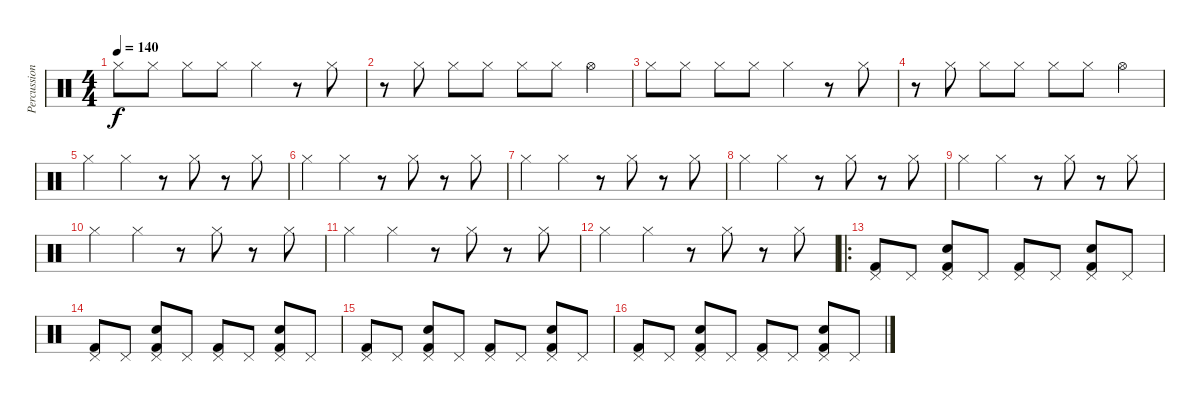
\track ("Percussion" "Percussion") {instrument percussion}
\staff {score}
\articulation defaults
\ts (4 4)
\tempo 140
\clef neutral
\ks c "Hi-Hat (closed)".8{dy f} "Hi-Hat (closed)".8 "Hi-Hat (closed)".8 "Hi-Hat (closed)".8 "Hi-Hat (closed)".4
r.8 "Hi-Hat (closed)".8 |
r.8 "Hi-Hat (closed)".8 "Hi-Hat (closed)".8 "Hi-Hat (closed)".8 "Hi-Hat (closed)".8 "Hi-Hat (closed)".8 "Hi-Hat (open)".4 |
"Hi-Hat (closed)".8 "Hi-Hat (closed)".8 "Hi-Hat (closed)".8 "Hi-Hat (closed)".8 "Hi-Hat (closed)".4 r.8 "Hi-Hat (closed)".8 |
r.8 "Hi-Hat (closed)".8 "Hi-Hat (closed)".8 "Hi-Hat (closed)".8 "Hi-Hat (closed)".8 "Hi-Hat (closed)".8 "Hi-Hat (open)".4 |
"Hi-Hat (closed)".4 "Hi-Hat (closed)".4 r.8 "Hi-Hat (closed)".8 r.8 "Hi-Hat (closed)".8 |
"Hi-Hat (closed)".4 "Hi-Hat (closed)".4 r.8 "Hi-Hat (closed)".8 r.8 "Hi-Hat (closed)".8 |
"Hi-Hat (closed)".4 "Hi-Hat (closed)".4 r.8 "Hi-Hat (closed)".8 r.8 "Hi-Hat (closed)".8 |
"Hi-Hat (closed)".4 "Hi-Hat (closed)".4 r.8 "Hi-Hat (closed)".8 r.8 "Hi-Hat (closed)".8 |
"Hi-Hat (closed)".4 "Hi-Hat (closed)".4 r.8 "Hi-Hat (closed)".8 r.8 "Hi-Hat (closed)".8 |
"Hi-Hat (closed)".4 "Hi-Hat (closed)".4 r.8 "Hi-Hat (closed)".8 r.8 "Hi-Hat (closed)".8 |
"Hi-Hat (closed)".4 "Hi-Hat (closed)".4 r.8 "Hi-Hat (closed)".8 r.8 "Hi-Hat (closed)".8 |
"Hi-Hat (closed)".4 "Hi-Hat (closed)".4 r.8 "Hi-Hat (closed)".8 r.8 "Hi-Hat (closed)".8 |
\ro
("Kick (hit) 2" "Pedal Hi-Hat (hit)").8 "Pedal Hi-Hat (hit)".8 ("Electric Snare (hit)" "Kick (hit) 2" "Pedal Hi-Hat (hit)").8 "Pedal Hi-Hat (hit)".8 ("Kick (hit) 2" "Pedal Hi-Hat (hit)").8 "Pedal Hi-Hat (hit)".8 ("Electric Snare (hit)" "Kick (hit) 2" "Pedal Hi-Hat (hit)").8 "Pedal Hi-Hat (hit)".8 |
("Kick (hit) 2" "Pedal Hi-Hat (hit)").8 "Pedal Hi-Hat (hit)".8 ("Electric Snare (hit)" "Kick (hit) 2" "Pedal Hi-Hat (hit)").8 "Pedal Hi-Hat (hit)".8 ("Kick (hit) 2" "Pedal Hi-Hat (hit)").8 "Pedal Hi-Hat (hit)".8 ("Electric Snare (hit)" "Kick (hit) 2" "Pedal Hi-Hat (hit)").8 "Pedal Hi-Hat (hit)".8 |
("Kick (hit) 2" "Pedal Hi-Hat (hit)").8 "Pedal Hi-Hat (hit)".8 ("Electric Snare (hit)" "Kick (hit) 2" "Pedal Hi-Hat (hit)").8 "Pedal Hi-Hat (hit)".8 ("Kick (hit) 2" "Pedal Hi-Hat (hit)").8 "Pedal Hi-Hat (hit)".8 ("Electric Snare (hit)" "Kick (hit) 2" "Pedal Hi-Hat (hit)").8 "Pedal Hi-Hat (hit)".8 |
("Kick (hit) 2" "Pedal Hi-Hat (hit)").8 "Pedal Hi-Hat (hit)".8 ("Electric Snare (hit)" "Kick (hit) 2" "Pedal Hi-Hat (hit)").8 "Pedal Hi-Hat (hit)".8 ("Kick (hit) 2" "Pedal Hi-Hat (hit)").8 "Pedal Hi-Hat (hit)".8 ("Electric Snare (hit)" "Kick (hit) 2" "Pedal Hi-Hat (hit)").8 "Pedal Hi-Hat (hit)".8
